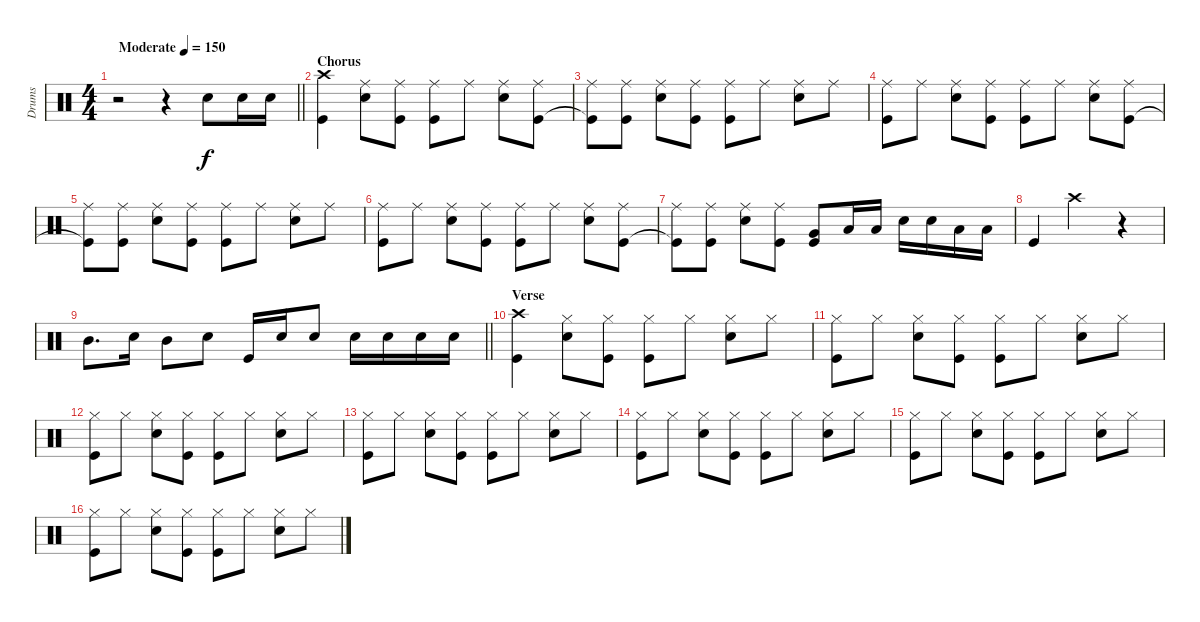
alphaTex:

\track ("Drums" "Drums") {instrument percussion}
\staff {score}
\articulation defaults
\ts (4 4)
\tempo (150 "Moderate")
\clef neutral
\barLineRight lightlight
\ks c
r.2{dy f} r.4 "Snare (hit) 2".8 "Snare (hit) 2".16 "Snare (hit) 2".16 |
\section ("" "Chorus")
("Crash high (hit)" "Kick (hit)").4 ("Ride (middle)" "Snare (hit) 2").8 ("Ride (middle)" "Kick (hit)").8 ("Ride (middle)" "Kick (hit)").8 "Ride (middle)".8 ("Ride (middle)" "Snare (hit) 2").8 ("Ride (middle)" "Kick (hit)").8 |
("Ride (middle)" "Kick (hit)"{t}).8 ("Ride (middle)" "Kick (hit)").8 ("Ride (middle)" "Snare (hit) 2").8 ("Ride (middle)" "Kick (hit)").8 ("Ride (middle)" "Kick (hit)").8 "Ride (middle)".8 ("Ride (middle)" "Snare (hit) 2").8 "Ride (middle)".8 |
("Ride (middle)" "Kick (hit)").8 "Ride (middle)".8 ("Ride (middle)" "Snare (hit) 2").8 ("Ride (middle)" "Kick (hit)").8 ("Ride (middle)" "Kick (hit)").8 "Ride (middle)".8 ("Ride (middle)" "Snare (hit) 2").8 ("Ride (middle)" "Kick (hit)").8 |
("Ride (middle)" "Kick (hit)"{t}).8 ("Ride (middle)" "Kick (hit)").8 ("Ride (middle)" "Snare (hit) 2").8 ("Ride (middle)" "Kick (hit)").8 ("Ride (middle)" "Kick (hit)").8 "Ride (middle)".8 ("Ride (middle)" "Snare (hit) 2").8 "Ride (middle)".8 |
("Ride (middle)" "Kick (hit)").8 "Ride (middle)".8 ("Ride (middle)" "Snare (hit) 2").8 ("Ride (middle)" "Kick (hit)").8 ("Ride (middle)" "Kick (hit)").8 "Ride (middle)".8 ("Ride (middle)" "Snare (hit) 2").8 ("Ride (middle)" "Kick (hit)").8 |
("Ride (middle)" "Kick (hit)"{t}).8 ("Ride (middle)" "Kick (hit)").8 ("Ride (middle)" "Snare (hit) 2").8 ("Ride (middle)" "Kick (hit)").8 ("Very Low Tom (hit)" "Kick (hit)").8 "Low Floor Tom (hit)".16 "Low Floor Tom (hit)".16 "Snare (hit) 2".16 "Snare (hit) 2".16 "Low Floor Tom (hit)".16 "Low Floor Tom (hit)".16 |
"Kick (hit)".4 "Crash high (hit)".2 r.4 |
\barLineRight lightlight "Mid Tom (hit)".8{d} "Snare (hit) 2".16 "Mid Tom (hit)".8 "Snare (hit) 2".8 "Kick (hit)".16 "Snare (hit) 2".16 "Snare (hit) 2".8 "Snare (hit) 2".16 "Snare (hit) 2".16 "Snare (hit) 2".16 "Snare (hit) 2".16
|
\section ("" "Verse")
("Crash high (hit)" "Kick (hit)").4 ("Hi-Hat (closed)" "Snare (hit) 2").8 ("Hi-Hat (closed)" "Kick (hit)").8 ("Hi-Hat (closed)" "Kick (hit)").8 "Hi-Hat (closed)".8 ("Hi-Hat (closed)" "Snare (hit) 2").8 "Hi-Hat (closed)".8 |
("Hi-Hat (closed)" "Kick (hit)").8 "Hi-Hat (closed)".8 ("Hi-Hat (closed)" "Snare (hit) 2").8 ("Hi-Hat (closed)" "Kick (hit)").8 ("Hi-Hat (closed)" "Kick (hit)").8 "Hi-Hat (closed)".8 ("Hi-Hat (closed)" "Snare (hit) 2").8 "Hi-Hat (closed)".8 |
("Hi-Hat (closed)" "Kick (hit)").8 "Hi-Hat (closed)".8 ("Hi-Hat (closed)" "Snare (hit) 2").8 ("Hi-Hat (closed)" "Kick (hit)").8 ("Hi-Hat (closed)" "Kick (hit)").8 "Hi-Hat (closed)".8 ("Hi-Hat (closed)" "Snare (hit) 2").8 "Hi-Hat (closed)".8 |
("Hi-Hat (closed)" "Kick (hit)").8 "Hi-Hat (closed)".8 ("Hi-Hat (closed)" "Snare (hit) 2").8 ("Hi-Hat (closed)" "Kick (hit)").8 ("Hi-Hat (closed)" "Kick (hit)").8 "Hi-Hat (closed)".8 ("Hi-Hat (closed)" "Snare (hit) 2").8 "Hi-Hat (closed)".8 |
("Hi-Hat (closed)" "Kick (hit)").8 "Hi-Hat (closed)".8 ("Hi-Hat (closed)" "Snare (hit) 2").8 ("Hi-Hat (closed)" "Kick (hit)").8 ("Hi-Hat (closed)" "Kick (hit)").8 "Hi-Hat (closed)".8 ("Hi-Hat (closed)" "Snare (hit) 2").8 "Hi-Hat (closed)".8 |
("Hi-Hat (closed)" "Kick (hit)").8 "Hi-Hat (closed)".8 ("Hi-Hat (closed)" "Snare (hit) 2").8 ("Hi-Hat (closed)" "Kick (hit)").8 ("Hi-Hat (closed)" "Kick (hit)").8 "Hi-Hat (closed)".8 ("Hi-Hat (closed)" "Snare (hit) 2").8 "Hi-Hat (closed)".8 |
("Hi-Hat (closed)" "Kick (hit)").8 "Hi-Hat (closed)".8 ("Hi-Hat (closed)" "Snare (hit) 2").8 ("Hi-Hat (closed)" "Kick (hit)").8 ("Hi-Hat (closed)" "Kick (hit)").8 "Hi-Hat (closed)".8 ("Hi-Hat (closed)" "Snare (hit) 2").8 "Hi-Hat (closed)".8
